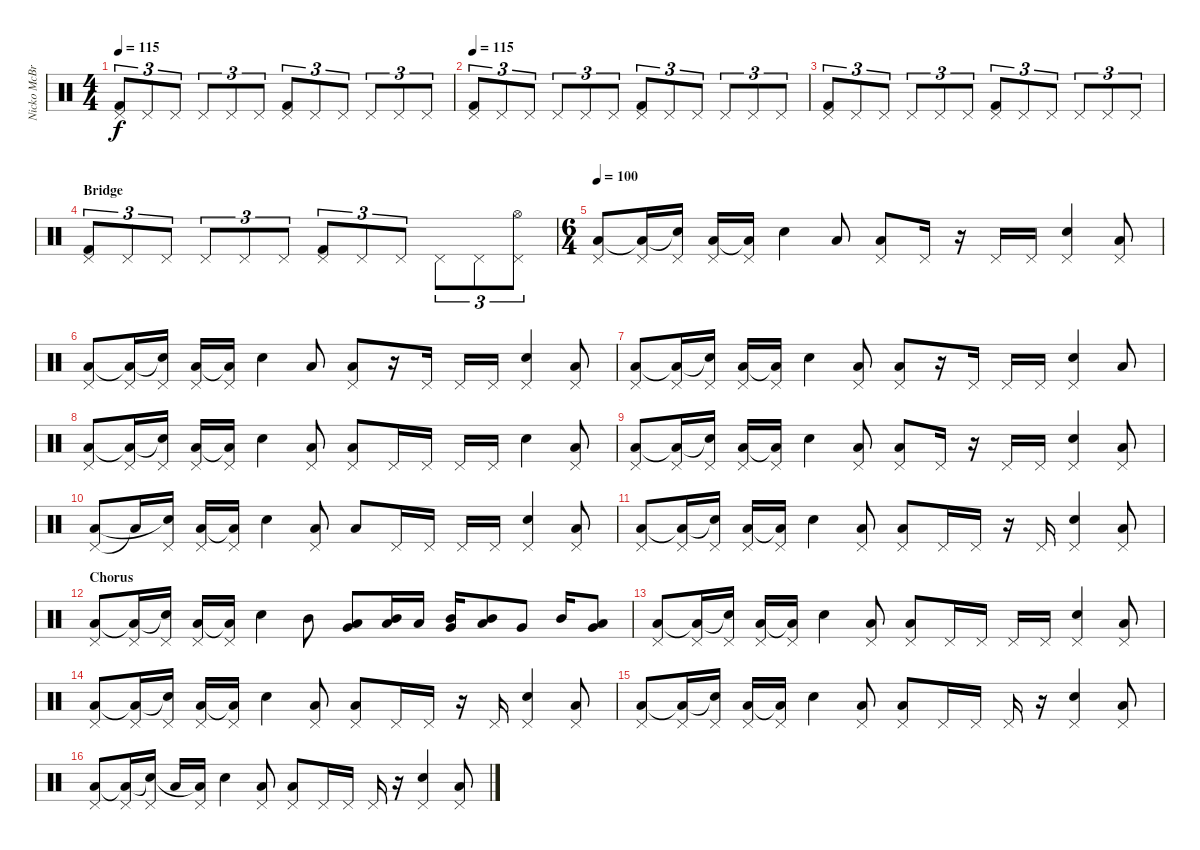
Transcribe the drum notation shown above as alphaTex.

\track ("Nicko McBrain" "Nicko McBr") {instrument percussion}
\staff {score}
\articulation defaults
\ts (4 4)
\tempo 115
\clef neutral
\ks c
("Pedal Hi-Hat (hit)" "Kick (hit) 2").8{tu (3 2) dy f} "Pedal Hi-Hat (hit)".8{tu (3 2)} "Pedal Hi-Hat (hit)".8{tu (3 2)} "Pedal Hi-Hat (hit)".8{tu (3 2)} "Pedal Hi-Hat (hit)".8{tu (3 2)} "Pedal Hi-Hat (hit)".8{tu (3 2)} ("Pedal Hi-Hat (hit)" "Kick (hit) 2").8{tu (3 2)} "Pedal Hi-Hat (hit)".8{tu (3 2)} "Pedal Hi-Hat (hit)".8{tu (3 2)} "Pedal Hi-Hat (hit)".8{tu (3 2)} "Pedal Hi-Hat (hit)".8{tu (3 2)} "Pedal Hi-Hat (hit)".8{tu (3 2)} |
\tempo 115
("Pedal Hi-Hat (hit)" "Kick (hit) 2").8{tu (3 2)} "Pedal Hi-Hat (hit)".8{tu (3 2)} "Pedal Hi-Hat (hit)".8{tu (3 2)} "Pedal Hi-Hat (hit)".8{tu (3 2)} "Pedal Hi-Hat (hit)".8{tu (3 2)} "Pedal Hi-Hat (hit)".8{tu (3 2)} ("Pedal Hi-Hat (hit)" "Kick (hit) 2").8{tu (3 2)} "Pedal Hi-Hat (hit)".8{tu (3 2)} "Pedal Hi-Hat (hit)".8{tu (3 2)} "Pedal Hi-Hat (hit)".8{tu (3 2)} "Pedal Hi-Hat (hit)".8{tu (3 2)} "Pedal Hi-Hat (hit)".8{tu (3 2)} |
("Pedal Hi-Hat (hit)" "Kick (hit) 2").8{tu (3 2)} "Pedal Hi-Hat (hit)".8{tu (3 2)} "Pedal Hi-Hat (hit)".8{tu (3 2)} "Pedal Hi-Hat (hit)".8{tu (3 2)} "Pedal Hi-Hat (hit)".8{tu (3 2)} "Pedal Hi-Hat (hit)".8{tu (3 2)} ("Pedal Hi-Hat (hit)" "Kick (hit) 2").8{tu (3 2)} "Pedal Hi-Hat (hit)".8{tu (3 2)} "Pedal Hi-Hat (hit)".8{tu (3 2)} "Pedal Hi-Hat (hit)".8{tu (3 2)} "Pedal Hi-Hat (hit)".8{tu (3 2)} "Pedal Hi-Hat (hit)".8{tu (3 2)} |
\section ("" "Bridge")
("Pedal Hi-Hat (hit)" "Kick (hit) 2").8{tu (3 2)} "Pedal Hi-Hat (hit)".8{tu (3 2)} "Pedal Hi-Hat (hit)".8{tu (3 2)} "Pedal Hi-Hat (hit)".8{tu (3 2)} "Pedal Hi-Hat (hit)".8{tu (3 2)} "Pedal Hi-Hat (hit)".8{tu (3 2)} ("Pedal Hi-Hat (hit)" "Kick (hit) 2").8{tu (3 2)} "Pedal Hi-Hat (hit)".8{tu (3 2)} "Pedal Hi-Hat (hit)".8{tu (3 2)} "Pedal Hi-Hat (hit)".8{tu (3 2)} "Pedal Hi-Hat (hit)".8{tu (3 2)} ("Pedal Hi-Hat (hit)" "Hi-Hat (open)").8{tu (3 2)} |
\ts (6 4)
\tempo 100
("Pedal Hi-Hat (hit)" "Low Floor Tom (hit)").8{volume 12} ("Pedal Hi-Hat (hit)" "Low Floor Tom (hit)"{t}).16 ("Pedal Hi-Hat (hit)" "Electric Snare (hit)"{t}).16 ("Pedal Hi-Hat (hit)" "Low Floor Tom (hit)").16 ("Pedal Hi-Hat (hit)" "Low Floor Tom (hit)"{t}).16 "Electric Snare (hit)".4 "Low Floor Tom (hit)".8 ("Pedal Hi-Hat (hit)" "Low Floor Tom (hit)").8 "Pedal Hi-Hat (hit)".16 r.16 "Pedal Hi-Hat (hit)".16 "Pedal Hi-Hat (hit)".16 ("Pedal Hi-Hat (hit)" "Electric Snare (hit)").4 ("Pedal Hi-Hat (hit)" "Low Floor Tom (hit)").8 |
("Pedal Hi-Hat (hit)" "Low Floor Tom (hit)").8 ("Pedal Hi-Hat (hit)" "Low Floor Tom (hit)"{t}).16 ("Pedal Hi-Hat (hit)" "Electric Snare (hit)"{t}).16 ("Pedal Hi-Hat (hit)" "Low Floor Tom (hit)").16 ("Pedal Hi-Hat (hit)" "Low Floor Tom (hit)"{t}).16 "Electric Snare (hit)".4 "Low Floor Tom (hit)".8 ("Pedal Hi-Hat (hit)" "Low Floor Tom (hit)").8 r.16 "Pedal Hi-Hat (hit)".16 "Pedal Hi-Hat (hit)".16 "Pedal Hi-Hat (hit)".16 ("Pedal Hi-Hat (hit)" "Electric Snare (hit)").4 ("Pedal Hi-Hat (hit)" "Low Floor Tom (hit)").8 |
("Pedal Hi-Hat (hit)" "Low Floor Tom (hit)").8 ("Pedal Hi-Hat (hit)" "Low Floor Tom (hit)"{t}).16 ("Pedal Hi-Hat (hit)" "Electric Snare (hit)"{t}).16 ("Pedal Hi-Hat (hit)" "Low Floor Tom (hit)").16 ("Pedal Hi-Hat (hit)" "Low Floor Tom (hit)"{t}).16 "Electric Snare (hit)".4 ("Pedal Hi-Hat (hit)" "Low Floor Tom (hit)").8 ("Pedal Hi-Hat (hit)" "Low Floor Tom (hit)").8 r.16 "Pedal Hi-Hat (hit)".16 "Pedal Hi-Hat (hit)".16 "Pedal Hi-Hat (hit)".16 ("Pedal Hi-Hat (hit)" "Electric Snare (hit)").4 "Low Floor Tom (hit)".8 |
("Pedal Hi-Hat (hit)" "Low Floor Tom (hit)").8 ("Pedal Hi-Hat (hit)" "Low Floor Tom (hit)"{t}).16 ("Pedal Hi-Hat (hit)" "Electric Snare (hit)"{t}).16 ("Pedal Hi-Hat (hit)" "Low Floor Tom (hit)").16 ("Pedal Hi-Hat (hit)" "Low Floor Tom (hit)"{t}).16 "Electric Snare (hit)".4 ("Pedal Hi-Hat (hit)" "Low Floor Tom (hit)").8 ("Pedal Hi-Hat (hit)" "Low Floor Tom (hit)").8 "Pedal Hi-Hat (hit)".16 "Pedal Hi-Hat (hit)".16 "Pedal Hi-Hat (hit)".16 "Pedal Hi-Hat (hit)".16 "Electric Snare (hit)".4 ("Pedal Hi-Hat (hit)" "Low Floor Tom (hit)").8 |
("Pedal Hi-Hat (hit)" "Low Floor Tom (hit)").8 ("Pedal Hi-Hat (hit)" "Low Floor Tom (hit)"{t}).16 ("Pedal Hi-Hat (hit)" "Electric Snare (hit)"{t}).16 ("Pedal Hi-Hat (hit)" "Low Floor Tom (hit)").16 ("Pedal Hi-Hat (hit)" "Low Floor Tom (hit)"{t}).16 "Electric Snare (hit)".4 ("Pedal Hi-Hat (hit)" "Low Floor Tom (hit)").8 ("Pedal Hi-Hat (hit)" "Low Floor Tom (hit)").8 "Pedal Hi-Hat (hit)".16 r.16 "Pedal Hi-Hat (hit)".16 "Pedal Hi-Hat (hit)".16 ("Pedal Hi-Hat (hit)" "Electric Snare (hit)").4 ("Pedal Hi-Hat (hit)" "Low Floor Tom (hit)").8 |
("Pedal Hi-Hat (hit)" "Low Floor Tom (hit)").8 "Low Floor Tom (hit)"{t}.16 ("Pedal Hi-Hat (hit)" "Electric Snare (hit)"{t}).16 ("Pedal Hi-Hat (hit)" "Low Floor Tom (hit)").16 ("Pedal Hi-Hat (hit)" "Low Floor Tom (hit)"{t}).16 "Electric Snare (hit)".4 ("Pedal Hi-Hat (hit)" "Low Floor Tom (hit)").8 "Low Floor Tom (hit)".8 "Pedal Hi-Hat (hit)".16 "Pedal Hi-Hat (hit)".16 "Pedal Hi-Hat (hit)".16 "Pedal Hi-Hat (hit)".16 ("Pedal Hi-Hat (hit)" "Electric Snare (hit)").4 ("Pedal Hi-Hat (hit)" "Low Floor Tom (hit)").8 |
("Pedal Hi-Hat (hit)" "Low Floor Tom (hit)").8 ("Pedal Hi-Hat (hit)" "Low Floor Tom (hit)"{t}).16 ("Pedal Hi-Hat (hit)" "Electric Snare (hit)"{t}).16 ("Pedal Hi-Hat (hit)" "Low Floor Tom (hit)").16 ("Pedal Hi-Hat (hit)" "Low Floor Tom (hit)"{t}).16 "Electric Snare (hit)".4 ("Pedal Hi-Hat (hit)" "Low Floor Tom (hit)").8 ("Pedal Hi-Hat (hit)" "Low Floor Tom (hit)").8 "Pedal Hi-Hat (hit)".16 "Pedal Hi-Hat (hit)".16 r.16 "Pedal Hi-Hat (hit)".16 ("Pedal Hi-Hat (hit)" "Electric Snare (hit)").4 ("Pedal Hi-Hat (hit)" "Low Floor Tom (hit)").8 |
\section ("" "Chorus")
("Pedal Hi-Hat (hit)" "Low Floor Tom (hit)").8 ("Pedal Hi-Hat (hit)" "Low Floor Tom (hit)"{t}).16 ("Pedal Hi-Hat (hit)" "Electric Snare (hit)"{t}).16 ("Pedal Hi-Hat (hit)" "Low Floor Tom (hit)").16 ("Pedal Hi-Hat (hit)" "Low Floor Tom (hit)"{t}).16 "Electric Snare (hit)".4 "Mid Tom (hit)".8 ("Very Low Tom (hit)" "Low Tom (hit)").8 ("Mid Tom (hit)" "Low Tom (hit)").16 "Low Tom (hit)".16 ("Very Low Tom (hit)" "Mid Tom (hit)").16 ("Mid Tom (hit)" "Low Tom (hit)").8 "Very Low Tom (hit)".8 "Mid Tom (hit)".16 ("Very Low Tom (hit)" "Low Tom (hit)").8 |
("Pedal Hi-Hat (hit)" "Low Floor Tom (hit)").8 ("Pedal Hi-Hat (hit)" "Low Floor Tom (hit)"{t}).16 ("Pedal Hi-Hat (hit)" "Electric Snare (hit)"{t}).16 ("Pedal Hi-Hat (hit)" "Low Floor Tom (hit)").16 ("Pedal Hi-Hat (hit)" "Low Floor Tom (hit)"{t}).16 "Electric Snare (hit)".4 ("Pedal Hi-Hat (hit)" "Low Floor Tom (hit)").8 ("Pedal Hi-Hat (hit)" "Low Floor Tom (hit)").8 "Pedal Hi-Hat (hit)".16 "Pedal Hi-Hat (hit)".16 "Pedal Hi-Hat (hit)".16 "Pedal Hi-Hat (hit)".16 ("Pedal Hi-Hat (hit)" "Electric Snare (hit)").4 ("Pedal Hi-Hat (hit)" "Low Floor Tom (hit)").8 |
("Pedal Hi-Hat (hit)" "Low Floor Tom (hit)").8 ("Pedal Hi-Hat (hit)" "Low Floor Tom (hit)"{t}).16 ("Pedal Hi-Hat (hit)" "Electric Snare (hit)"{t}).16 ("Pedal Hi-Hat (hit)" "Low Floor Tom (hit)").16 ("Pedal Hi-Hat (hit)" "Low Floor Tom (hit)"{t}).16 "Electric Snare (hit)".4 ("Pedal Hi-Hat (hit)" "Low Floor Tom (hit)").8 ("Pedal Hi-Hat (hit)" "Low Floor Tom (hit)").8 "Pedal Hi-Hat (hit)".16 "Pedal Hi-Hat (hit)".16 r.16 "Pedal Hi-Hat (hit)".16 ("Pedal Hi-Hat (hit)" "Electric Snare (hit)").4 ("Pedal Hi-Hat (hit)" "Low Floor Tom (hit)").8 |
("Pedal Hi-Hat (hit)" "Low Floor Tom (hit)").8 ("Pedal Hi-Hat (hit)" "Low Floor Tom (hit)"{t}).16 ("Pedal Hi-Hat (hit)" "Electric Snare (hit)"{t}).16 ("Pedal Hi-Hat (hit)" "Low Floor Tom (hit)").16 ("Pedal Hi-Hat (hit)" "Low Floor Tom (hit)"{t}).16 "Electric Snare (hit)".4 ("Pedal Hi-Hat (hit)" "Low Floor Tom (hit)").8 ("Pedal Hi-Hat (hit)" "Low Floor Tom (hit)").8 "Pedal Hi-Hat (hit)".16 "Pedal Hi-Hat (hit)".16 "Pedal Hi-Hat (hit)".16 r.16 ("Pedal Hi-Hat (hit)" "Electric Snare (hit)").4 ("Pedal Hi-Hat (hit)" "Low Floor Tom (hit)").8 |
("Pedal Hi-Hat (hit)" "Low Floor Tom (hit)").8 ("Pedal Hi-Hat (hit)" "Low Floor Tom (hit)"{t}).16 ("Pedal Hi-Hat (hit)" "Electric Snare (hit)"{t}).16 "Low Floor Tom (hit)".16 ("Pedal Hi-Hat (hit)" "Low Floor Tom (hit)"{t}).16 "Electric Snare (hit)".4 ("Pedal Hi-Hat (hit)" "Low Floor Tom (hit)").8 ("Pedal Hi-Hat (hit)" "Low Floor Tom (hit)").8 "Pedal Hi-Hat (hit)".16 "Pedal Hi-Hat (hit)".16 "Pedal Hi-Hat (hit)".16 r.16 ("Pedal Hi-Hat (hit)" "Electric Snare (hit)").4 ("Pedal Hi-Hat (hit)" "Low Floor Tom (hit)").8
